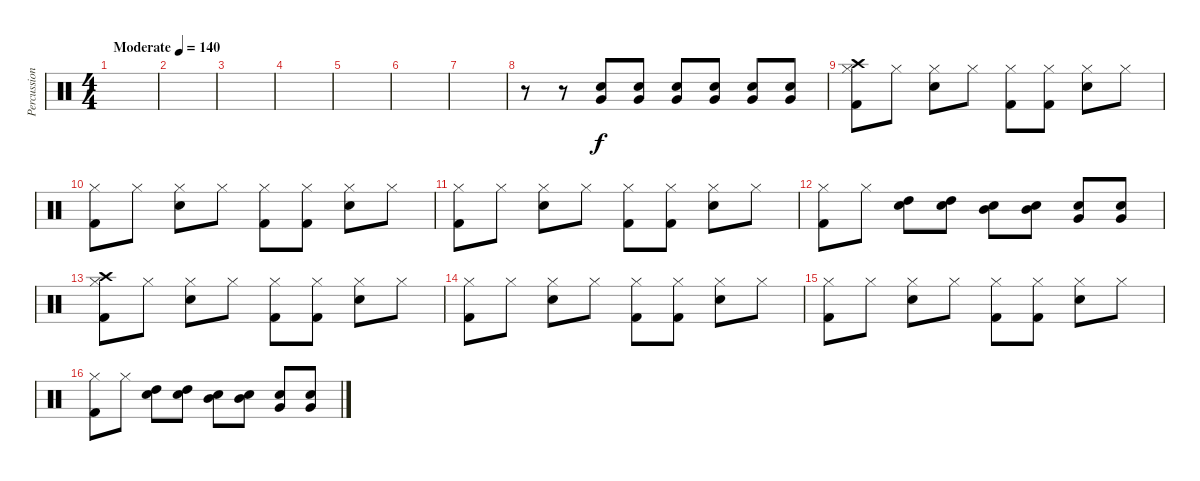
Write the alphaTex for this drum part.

\track ("Percussion" "Percussion") {instrument percussion}
\staff {score}
\articulation defaults
\ts (4 4)
\tempo (140 "Moderate")
\clef neutral
\ks c
|
|
|
|
|
|
|
r.8 r.8 ("Electric Snare (hit)" "Very Low Tom (hit)").8 ("Electric Snare (hit)" "Very Low Tom (hit)").8 ("Electric Snare (hit)" "Very Low Tom (hit)").8 ("Electric Snare (hit)" "Very Low Tom (hit)").8 ("Electric Snare (hit)" "Very Low Tom (hit)").8 ("Electric Snare (hit)" "Very Low Tom (hit)").8 |
("Kick (hit) 2" "Hi-Hat (closed)" "Crash high (hit)").8 "Hi-Hat (closed)".8 ("Electric Snare (hit)" "Hi-Hat (closed)").8 "Hi-Hat (closed)".8 ("Kick (hit) 2" "Hi-Hat (closed)").8 ("Kick (hit) 2" "Hi-Hat (closed)").8 ("Electric Snare (hit)" "Hi-Hat (closed)").8 "Hi-Hat (closed)".8 |
("Kick (hit) 2" "Hi-Hat (closed)").8 "Hi-Hat (closed)".8 ("Electric Snare (hit)" "Hi-Hat (closed)").8 "Hi-Hat (closed)".8 ("Kick (hit) 2" "Hi-Hat (closed)").8 ("Kick (hit) 2" "Hi-Hat (closed)").8 ("Electric Snare (hit)" "Hi-Hat (closed)").8 "Hi-Hat (closed)".8 |
("Kick (hit) 2" "Hi-Hat (closed)").8 "Hi-Hat (closed)".8 ("Electric Snare (hit)" "Hi-Hat (closed)").8 "Hi-Hat (closed)".8 ("Kick (hit) 2" "Hi-Hat (closed)").8 ("Kick (hit) 2" "Hi-Hat (closed)").8 ("Electric Snare (hit)" "Hi-Hat (closed)").8 "Hi-Hat (closed)".8 |
("Kick (hit) 2" "Hi-Hat (closed)").8 "Hi-Hat (closed)".8 ("Electric Snare (hit)" "High Tom (hit)").8 ("Electric Snare (hit)" "High Tom (hit)").8 ("Electric Snare (hit)" "Mid Tom (hit)").8 ("Electric Snare (hit)" "Mid Tom (hit)").8 ("Electric Snare (hit)" "Very Low Tom (hit)").8 ("Electric Snare (hit)" "Very Low Tom (hit)").8 |
("Kick (hit) 2" "Hi-Hat (closed)" "Crash high (hit)").8 "Hi-Hat (closed)".8 ("Electric Snare (hit)" "Hi-Hat (closed)").8 "Hi-Hat (closed)".8 ("Kick (hit) 2" "Hi-Hat (closed)").8 ("Kick (hit) 2" "Hi-Hat (closed)").8 ("Electric Snare (hit)" "Hi-Hat (closed)").8 "Hi-Hat (closed)".8 |
("Kick (hit) 2" "Hi-Hat (closed)").8 "Hi-Hat (closed)".8 ("Electric Snare (hit)" "Hi-Hat (closed)").8 "Hi-Hat (closed)".8 ("Kick (hit) 2" "Hi-Hat (closed)").8 ("Kick (hit) 2" "Hi-Hat (closed)").8 ("Electric Snare (hit)" "Hi-Hat (closed)").8 "Hi-Hat (closed)".8 |
("Kick (hit) 2" "Hi-Hat (closed)").8 "Hi-Hat (closed)".8 ("Electric Snare (hit)" "Hi-Hat (closed)").8 "Hi-Hat (closed)".8 ("Kick (hit) 2" "Hi-Hat (closed)").8 ("Kick (hit) 2" "Hi-Hat (closed)").8 ("Electric Snare (hit)" "Hi-Hat (closed)").8 "Hi-Hat (closed)".8 |
("Kick (hit) 2" "Hi-Hat (closed)").8 "Hi-Hat (closed)".8 ("Electric Snare (hit)" "High Tom (hit)").8 ("Electric Snare (hit)" "High Tom (hit)").8 ("Electric Snare (hit)" "Mid Tom (hit)").8 ("Electric Snare (hit)" "Mid Tom (hit)").8 ("Electric Snare (hit)" "Very Low Tom (hit)").8 ("Electric Snare (hit)" "Very Low Tom (hit)").8
